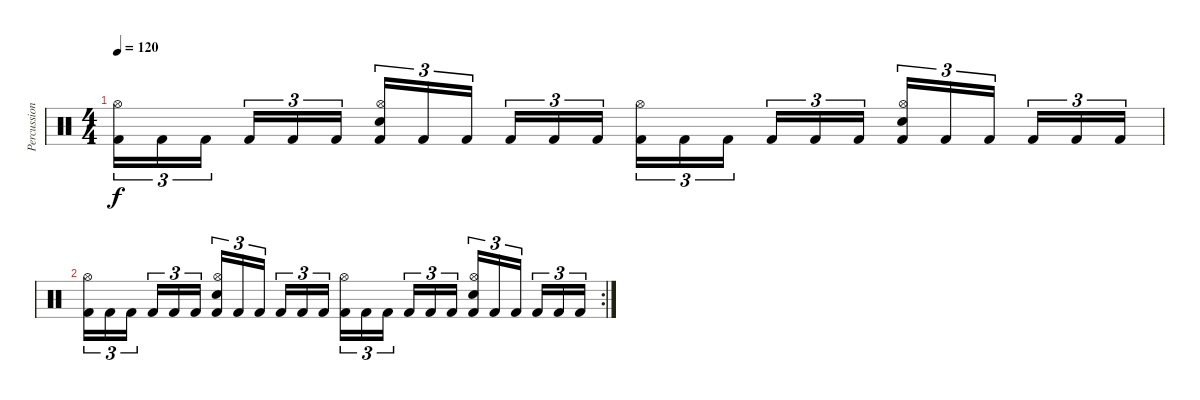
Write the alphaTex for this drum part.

\track ("Percussion" "Percussion") {instrument percussion}
\staff {score}
\articulation defaults
\ts (4 4)
\tempo 120
\clef neutral
\ks c
("Kick (hit) 2" "Hi-Hat (open)").16{tu (3 2) dy f} "Kick (hit) 2".16{tu (3 2)} "Kick (hit) 2".16{tu (3 2) beam splitsecondary} "Kick (hit) 2".16{tu (3 2)} "Kick (hit) 2".16{tu (3 2)} "Kick (hit) 2".16{tu (3 2)} ("Kick (hit) 2" "Hi-Hat (open)" "Snare (hit) 2").16{tu (3 2)} "Kick (hit) 2".16{tu (3 2)} "Kick (hit) 2".16{tu (3 2) beam splitsecondary} "Kick (hit) 2".16{tu (3 2)} "Kick (hit) 2".16{tu (3 2)} "Kick (hit) 2".16{tu (3 2)} ("Kick (hit) 2" "Hi-Hat (open)").16{tu (3 2)} "Kick (hit) 2".16{tu (3 2)} "Kick (hit) 2".16{tu (3 2) beam splitsecondary} "Kick (hit) 2".16{tu (3 2)} "Kick (hit) 2".16{tu (3 2)} "Kick (hit) 2".16{tu (3 2)} ("Kick (hit) 2" "Hi-Hat (open)" "Snare (hit) 2").16{tu (3 2)} "Kick (hit) 2".16{tu (3 2)} "Kick (hit) 2".16{tu (3 2) beam splitsecondary} "Kick (hit) 2".16{tu (3 2)} "Kick (hit) 2".16{tu (3 2)} "Kick (hit) 2".16{tu (3 2)} |
\rc 2
("Kick (hit) 2" "Hi-Hat (open)").16{tu (3 2)} "Kick (hit) 2".16{tu (3 2)} "Kick (hit) 2".16{tu (3 2) beam splitsecondary} "Kick (hit) 2".16{tu (3 2)} "Kick (hit) 2".16{tu (3 2)} "Kick (hit) 2".16{tu (3 2)} ("Kick (hit) 2" "Hi-Hat (open)" "Snare (hit) 2").16{tu (3 2)} "Kick (hit) 2".16{tu (3 2)} "Kick (hit) 2".16{tu (3 2) beam splitsecondary} "Kick (hit) 2".16{tu (3 2)} "Kick (hit) 2".16{tu (3 2)} "Kick (hit) 2".16{tu (3 2)} ("Kick (hit) 2" "Hi-Hat (open)").16{tu (3 2)} "Kick (hit) 2".16{tu (3 2)} "Kick (hit) 2".16{tu (3 2) beam splitsecondary} "Kick (hit) 2".16{tu (3 2)} "Kick (hit) 2".16{tu (3 2)} "Kick (hit) 2".16{tu (3 2)} ("Kick (hit) 2" "Hi-Hat (open)" "Snare (hit) 2").16{tu (3 2)} "Kick (hit) 2".16{tu (3 2)} "Kick (hit) 2".16{tu (3 2) beam splitsecondary} "Kick (hit) 2".16{tu (3 2)} "Kick (hit) 2".16{tu (3 2)} "Kick (hit) 2".16{tu (3 2)}
